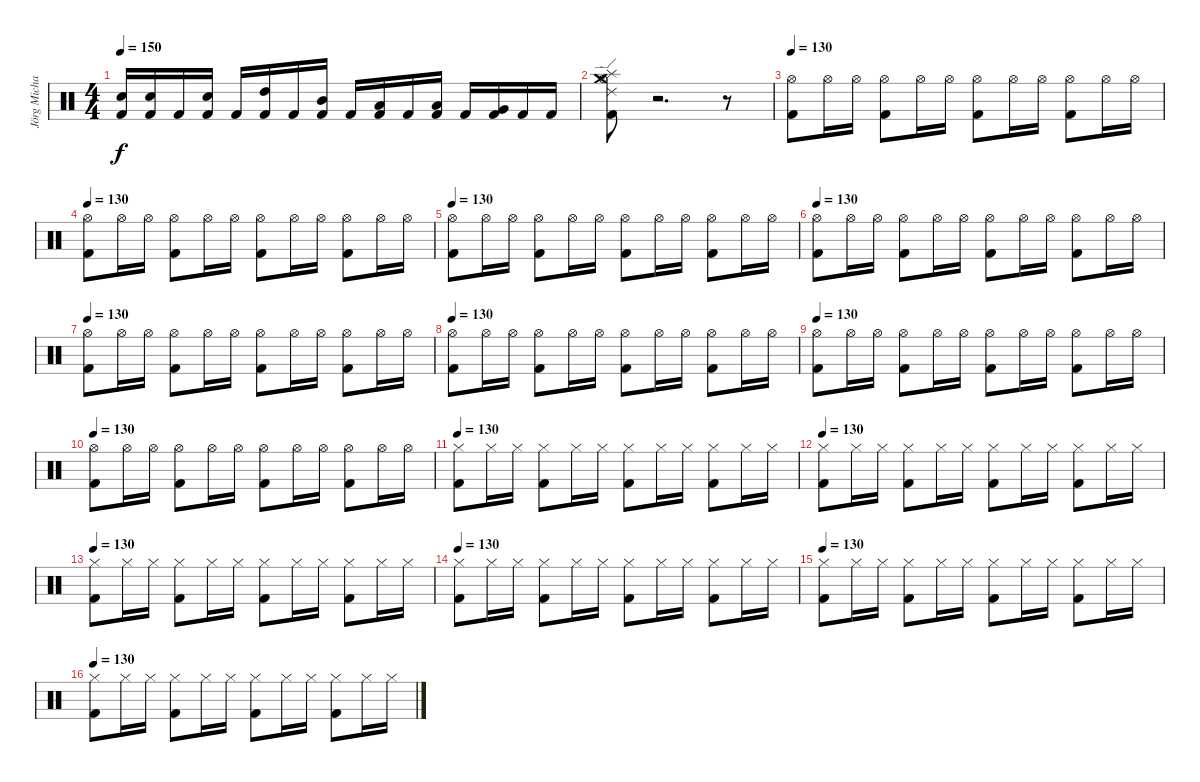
\track ("Jörg Michael (Drums)" "Jörg Micha") {instrument percussion}
\staff {score}
\articulation defaults
\ts (4 4)
\tempo 150
\clef neutral
\ks c
("Electric Snare (hit)" "Kick (hit) 2").16{dy f} ("Electric Snare (hit)" "Kick (hit) 2").16 "Kick (hit) 2".16 ("Electric Snare (hit)" "Kick (hit) 2").16 "Kick (hit) 2".16 ("High Tom (hit)" "Kick (hit) 2").16 "Kick (hit) 2".16 ("Mid Tom (hit)" "Kick (hit) 2").16 "Kick (hit) 2".16 ("Low Tom (hit)" "Kick (hit) 2").16 "Kick (hit) 2".16 ("Low Tom (hit)" "Kick (hit) 2").16 "Kick (hit) 2".16 ("Very Low Tom (hit)" "Kick (hit) 2").16 "Kick (hit) 2".16 "Kick (hit) 2".16 |
("Hi-Hat (open)" "Ride (edge) 2" "Crash medium (hit)" "Splash (hit)" "Kick (hit) 2").8 r.2{d} r.8 |
\tempo 130
("Hi-Hat (open)" "Kick (hit) 2").8 "Hi-Hat (open)".16 "Hi-Hat (open)".16 ("Hi-Hat (open)" "Kick (hit) 2").8 "Hi-Hat (open)".16 "Hi-Hat (open)".16 ("Hi-Hat (open)" "Kick (hit) 2").8 "Hi-Hat (open)".16 "Hi-Hat (open)".16 ("Hi-Hat (open)" "Kick (hit) 2").8 "Hi-Hat (open)".16 "Hi-Hat (open)".16 |
\tempo 130
("Hi-Hat (open)" "Kick (hit) 2").8 "Hi-Hat (open)".16 "Hi-Hat (open)".16 ("Hi-Hat (open)" "Kick (hit) 2").8 "Hi-Hat (open)".16 "Hi-Hat (open)".16 ("Hi-Hat (open)" "Kick (hit) 2").8 "Hi-Hat (open)".16 "Hi-Hat (open)".16 ("Hi-Hat (open)" "Kick (hit) 2").8 "Hi-Hat (open)".16 "Hi-Hat (open)".16 |
\tempo 130
("Hi-Hat (open)" "Kick (hit) 2").8 "Hi-Hat (open)".16 "Hi-Hat (open)".16 ("Hi-Hat (open)" "Kick (hit) 2").8 "Hi-Hat (open)".16 "Hi-Hat (open)".16 ("Hi-Hat (open)" "Kick (hit) 2").8 "Hi-Hat (open)".16 "Hi-Hat (open)".16 ("Hi-Hat (open)" "Kick (hit) 2").8 "Hi-Hat (open)".16 "Hi-Hat (open)".16 |
\tempo 130
("Hi-Hat (open)" "Kick (hit) 2").8 "Hi-Hat (open)".16 "Hi-Hat (open)".16 ("Hi-Hat (open)" "Kick (hit) 2").8 "Hi-Hat (open)".16 "Hi-Hat (open)".16 ("Hi-Hat (open)" "Kick (hit) 2").8 "Hi-Hat (open)".16 "Hi-Hat (open)".16 ("Hi-Hat (open)" "Kick (hit) 2").8 "Hi-Hat (open)".16 "Hi-Hat (open)".16 |
\tempo 130
("Hi-Hat (open)" "Kick (hit) 2").8 "Hi-Hat (open)".16 "Hi-Hat (open)".16 ("Hi-Hat (open)" "Kick (hit) 2").8 "Hi-Hat (open)".16 "Hi-Hat (open)".16 ("Hi-Hat (open)" "Kick (hit) 2").8 "Hi-Hat (open)".16 "Hi-Hat (open)".16 ("Hi-Hat (open)" "Kick (hit) 2").8 "Hi-Hat (open)".16 "Hi-Hat (open)".16 |
\tempo 130
("Hi-Hat (open)" "Kick (hit) 2").8 "Hi-Hat (open)".16 "Hi-Hat (open)".16 ("Hi-Hat (open)" "Kick (hit) 2").8 "Hi-Hat (open)".16 "Hi-Hat (open)".16 ("Hi-Hat (open)" "Kick (hit) 2").8 "Hi-Hat (open)".16 "Hi-Hat (open)".16 ("Hi-Hat (open)" "Kick (hit) 2").8 "Hi-Hat (open)".16 "Hi-Hat (open)".16 |
\tempo 130
("Hi-Hat (open)" "Kick (hit) 2").8 "Hi-Hat (open)".16 "Hi-Hat (open)".16 ("Hi-Hat (open)" "Kick (hit) 2").8 "Hi-Hat (open)".16 "Hi-Hat (open)".16 ("Hi-Hat (open)" "Kick (hit) 2").8 "Hi-Hat (open)".16 "Hi-Hat (open)".16 ("Hi-Hat (open)" "Kick (hit) 2").8 "Hi-Hat (open)".16 "Hi-Hat (open)".16 |
\tempo 130
("Hi-Hat (open)" "Kick (hit) 2").8 "Hi-Hat (open)".16 "Hi-Hat (open)".16 ("Hi-Hat (open)" "Kick (hit) 2").8 "Hi-Hat (open)".16 "Hi-Hat (open)".16 ("Hi-Hat (open)" "Kick (hit) 2").8 "Hi-Hat (open)".16 "Hi-Hat (open)".16 ("Hi-Hat (open)" "Kick (hit) 2").8 "Hi-Hat (open)".16 "Hi-Hat (open)".16 |
\tempo 130
("Hi-Hat (closed)" "Kick (hit) 2").8 "Hi-Hat (closed)".16 "Hi-Hat (closed)".16 ("Hi-Hat (closed)" "Kick (hit) 2").8 "Hi-Hat (closed)".16 "Hi-Hat (closed)".16 ("Hi-Hat (closed)" "Kick (hit) 2").8 "Hi-Hat (closed)".16 "Hi-Hat (closed)".16 ("Hi-Hat (closed)" "Kick (hit) 2").8 "Hi-Hat (closed)".16 "Hi-Hat (closed)".16 |
\tempo 130
("Hi-Hat (closed)" "Kick (hit) 2").8 "Hi-Hat (closed)".16 "Hi-Hat (closed)".16 ("Hi-Hat (closed)" "Kick (hit) 2").8 "Hi-Hat (closed)".16 "Hi-Hat (closed)".16 ("Hi-Hat (closed)" "Kick (hit) 2").8 "Hi-Hat (closed)".16 "Hi-Hat (closed)".16 ("Hi-Hat (closed)" "Kick (hit) 2").8 "Hi-Hat (closed)".16 "Hi-Hat (closed)".16 |
\tempo 130
("Hi-Hat (closed)" "Kick (hit) 2").8 "Hi-Hat (closed)".16 "Hi-Hat (closed)".16 ("Hi-Hat (closed)" "Kick (hit) 2").8 "Hi-Hat (closed)".16 "Hi-Hat (closed)".16 ("Hi-Hat (closed)" "Kick (hit) 2").8 "Hi-Hat (closed)".16 "Hi-Hat (closed)".16 ("Hi-Hat (closed)" "Kick (hit) 2").8 "Hi-Hat (closed)".16 "Hi-Hat (closed)".16 |
\tempo 130
("Hi-Hat (closed)" "Kick (hit) 2").8 "Hi-Hat (closed)".16 "Hi-Hat (closed)".16 ("Hi-Hat (closed)" "Kick (hit) 2").8 "Hi-Hat (closed)".16 "Hi-Hat (closed)".16 ("Hi-Hat (closed)" "Kick (hit) 2").8 "Hi-Hat (closed)".16 "Hi-Hat (closed)".16 ("Hi-Hat (closed)" "Kick (hit) 2").8 "Hi-Hat (closed)".16 "Hi-Hat (closed)".16 |
\tempo 130
("Hi-Hat (closed)" "Kick (hit) 2").8 "Hi-Hat (closed)".16 "Hi-Hat (closed)".16 ("Hi-Hat (closed)" "Kick (hit) 2").8 "Hi-Hat (closed)".16 "Hi-Hat (closed)".16 ("Hi-Hat (closed)" "Kick (hit) 2").8 "Hi-Hat (closed)".16 "Hi-Hat (closed)".16 ("Hi-Hat (closed)" "Kick (hit) 2").8 "Hi-Hat (closed)".16 "Hi-Hat (closed)".16 |
\tempo 130
("Hi-Hat (closed)" "Kick (hit) 2").8 "Hi-Hat (closed)".16 "Hi-Hat (closed)".16 ("Hi-Hat (closed)" "Kick (hit) 2").8 "Hi-Hat (closed)".16 "Hi-Hat (closed)".16 ("Hi-Hat (closed)" "Kick (hit) 2").8 "Hi-Hat (closed)".16 "Hi-Hat (closed)".16 ("Hi-Hat (closed)" "Kick (hit) 2").8 "Hi-Hat (closed)".16 "Hi-Hat (closed)".16
